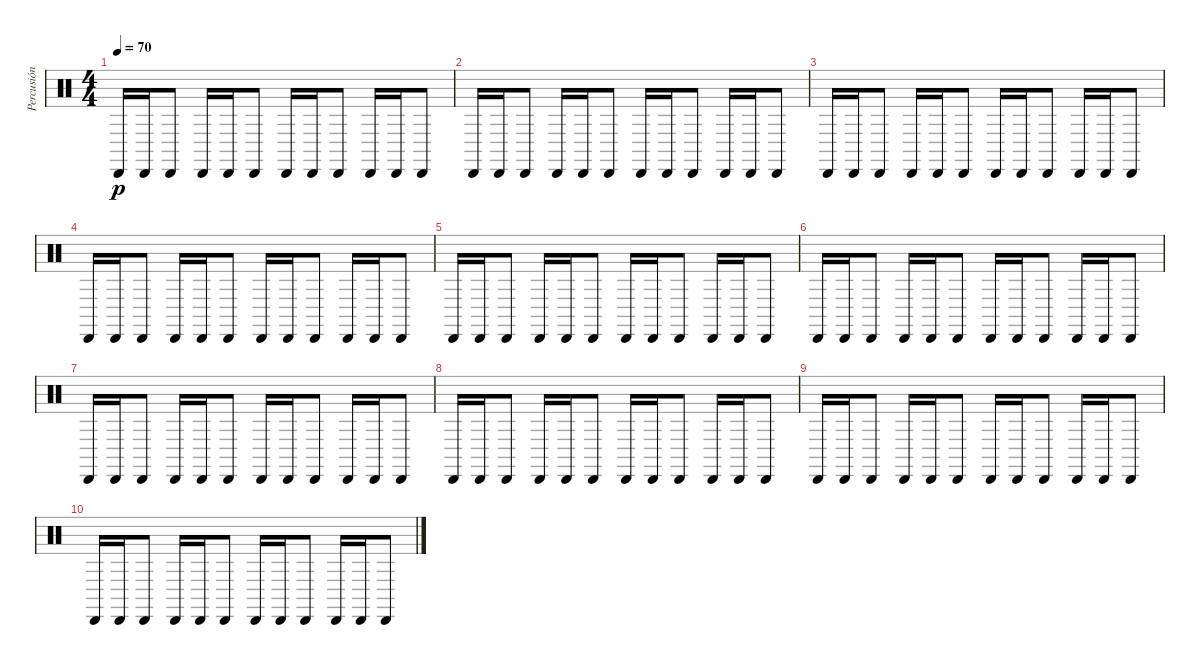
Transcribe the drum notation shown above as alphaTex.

\track ("Percusión" "Percusión") {instrument percussion}
\staff {score}
\articulation defaults
\ts (4 4)
\tempo 70
\clef neutral
\ks c "Cabasa (hit)".16{dy p} "Cabasa (hit)".16 "Cabasa (hit)".8 "Cabasa (hit)".16 "Cabasa (hit)".16 "Cabasa (hit)".8 "Cabasa (hit)".16 "Cabasa (hit)".16 "Cabasa (hit)".8 "Cabasa (hit)".16 "Cabasa (hit)".16 "Cabasa (hit)".8
|
"Cabasa (hit)".16 "Cabasa (hit)".16 "Cabasa (hit)".8 "Cabasa (hit)".16 "Cabasa (hit)".16 "Cabasa (hit)".8 "Cabasa (hit)".16 "Cabasa (hit)".16 "Cabasa (hit)".8 "Cabasa (hit)".16 "Cabasa (hit)".16 "Cabasa (hit)".8 |
"Cabasa (hit)".16 "Cabasa (hit)".16 "Cabasa (hit)".8 "Cabasa (hit)".16 "Cabasa (hit)".16 "Cabasa (hit)".8 "Cabasa (hit)".16 "Cabasa (hit)".16 "Cabasa (hit)".8 "Cabasa (hit)".16 "Cabasa (hit)".16 "Cabasa (hit)".8 |
"Cabasa (hit)".16 "Cabasa (hit)".16 "Cabasa (hit)".8 "Cabasa (hit)".16 "Cabasa (hit)".16 "Cabasa (hit)".8 "Cabasa (hit)".16 "Cabasa (hit)".16 "Cabasa (hit)".8 "Cabasa (hit)".16 "Cabasa (hit)".16 "Cabasa (hit)".8 |
"Cabasa (hit)".16 "Cabasa (hit)".16 "Cabasa (hit)".8 "Cabasa (hit)".16 "Cabasa (hit)".16 "Cabasa (hit)".8 "Cabasa (hit)".16 "Cabasa (hit)".16 "Cabasa (hit)".8 "Cabasa (hit)".16 "Cabasa (hit)".16 "Cabasa (hit)".8 |
"Cabasa (hit)".16 "Cabasa (hit)".16 "Cabasa (hit)".8 "Cabasa (hit)".16 "Cabasa (hit)".16 "Cabasa (hit)".8 "Cabasa (hit)".16 "Cabasa (hit)".16 "Cabasa (hit)".8 "Cabasa (hit)".16 "Cabasa (hit)".16 "Cabasa (hit)".8 |
"Cabasa (hit)".16 "Cabasa (hit)".16 "Cabasa (hit)".8 "Cabasa (hit)".16 "Cabasa (hit)".16 "Cabasa (hit)".8 "Cabasa (hit)".16 "Cabasa (hit)".16 "Cabasa (hit)".8 "Cabasa (hit)".16 "Cabasa (hit)".16 "Cabasa (hit)".8 |
"Cabasa (hit)".16 "Cabasa (hit)".16 "Cabasa (hit)".8 "Cabasa (hit)".16 "Cabasa (hit)".16 "Cabasa (hit)".8 "Cabasa (hit)".16 "Cabasa (hit)".16 "Cabasa (hit)".8 "Cabasa (hit)".16 "Cabasa (hit)".16 "Cabasa (hit)".8 |
"Cabasa (hit)".16 "Cabasa (hit)".16 "Cabasa (hit)".8 "Cabasa (hit)".16 "Cabasa (hit)".16 "Cabasa (hit)".8 "Cabasa (hit)".16 "Cabasa (hit)".16 "Cabasa (hit)".8 "Cabasa (hit)".16 "Cabasa (hit)".16 "Cabasa (hit)".8 |
"Cabasa (hit)".16 "Cabasa (hit)".16 "Cabasa (hit)".8 "Cabasa (hit)".16 "Cabasa (hit)".16 "Cabasa (hit)".8 "Cabasa (hit)".16 "Cabasa (hit)".16 "Cabasa (hit)".8 "Cabasa (hit)".16 "Cabasa (hit)".16 "Cabasa (hit)".8
